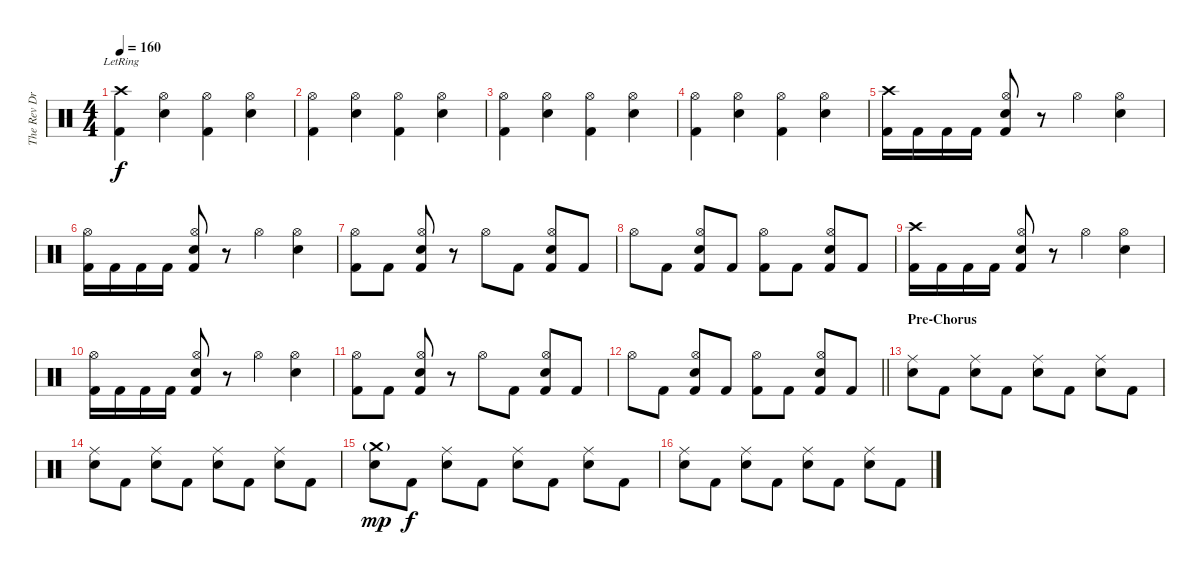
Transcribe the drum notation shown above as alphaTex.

\track ("The Rev Drum" "The Rev Dr") {instrument percussion}
\staff {score}
\articulation defaults
\ts (4 4)
\tempo 160
\clef neutral
\ks c
("Crash high (hit)" "Kick (hit) 2"{lr}).4{dy f} ("Hi-Hat (open)" "Electric Snare (hit)").4 ("Hi-Hat (open)" "Kick (hit) 2").4 ("Hi-Hat (open)" "Electric Snare (hit)").4 |
("Hi-Hat (open)" "Kick (hit) 2").4 ("Hi-Hat (open)" "Electric Snare (hit)").4 ("Hi-Hat (open)" "Kick (hit) 2").4 ("Hi-Hat (open)" "Electric Snare (hit)").4 |
("Hi-Hat (open)" "Kick (hit) 2").4 ("Hi-Hat (open)" "Electric Snare (hit)").4 ("Hi-Hat (open)" "Kick (hit) 2").4 ("Hi-Hat (open)" "Electric Snare (hit)").4 |
("Hi-Hat (open)" "Kick (hit) 2").4 ("Hi-Hat (open)" "Electric Snare (hit)").4 ("Hi-Hat (open)" "Kick (hit) 2").4 ("Hi-Hat (open)" "Electric Snare (hit)").4 |
("Crash high (hit)" "Kick (hit) 2").16 "Kick (hit) 2".16 "Kick (hit) 2".16 "Kick (hit) 2".16 ("Hi-Hat (open)" "Electric Snare (hit)" "Kick (hit) 2").8 r.8 "Hi-Hat (open)".4 ("Hi-Hat (open)" "Electric Snare (hit)").4 |
("Hi-Hat (open)" "Kick (hit) 2").16 "Kick (hit) 2".16 "Kick (hit) 2".16 "Kick (hit) 2".16 ("Hi-Hat (open)" "Electric Snare (hit)" "Kick (hit) 2").8 r.8 "Hi-Hat (open)".4 ("Hi-Hat (open)" "Electric Snare (hit)").4 |
("Hi-Hat (open)" "Kick (hit) 2").8 "Kick (hit) 2".8 ("Hi-Hat (open)" "Electric Snare (hit)" "Kick (hit) 2").8 r.8 "Hi-Hat (open)".8 "Kick (hit) 2".8 ("Hi-Hat (open)" "Electric Snare (hit)" "Kick (hit) 2").8 "Kick (hit) 2".8 |
"Hi-Hat (open)".8 "Kick (hit) 2".8 ("Hi-Hat (open)" "Electric Snare (hit)" "Kick (hit) 2").8 "Kick (hit) 2".8 ("Hi-Hat (open)" "Kick (hit) 2").8 "Kick (hit) 2".8 ("Hi-Hat (open)" "Electric Snare (hit)" "Kick (hit) 2").8 "Kick (hit) 2".8 |
("Crash high (hit)" "Kick (hit) 2").16 "Kick (hit) 2".16 "Kick (hit) 2".16 "Kick (hit) 2".16 ("Hi-Hat (open)" "Electric Snare (hit)" "Kick (hit) 2").8 r.8 "Hi-Hat (open)".4 ("Hi-Hat (open)" "Electric Snare (hit)").4 |
("Hi-Hat (open)" "Kick (hit) 2").16 "Kick (hit) 2".16 "Kick (hit) 2".16 "Kick (hit) 2".16 ("Hi-Hat (open)" "Electric Snare (hit)" "Kick (hit) 2").8 r.8 "Hi-Hat (open)".4 ("Hi-Hat (open)" "Electric Snare (hit)").4 |
("Hi-Hat (open)" "Kick (hit) 2").8 "Kick (hit) 2".8 ("Hi-Hat (open)" "Electric Snare (hit)" "Kick (hit) 2").8 r.8 "Hi-Hat (open)".8 "Kick (hit) 2".8 ("Hi-Hat (open)" "Electric Snare (hit)" "Kick (hit) 2").8 "Kick (hit) 2".8 |
\barLineRight lightlight "Hi-Hat (open)".8 "Kick (hit) 2".8
("Hi-Hat (open)" "Electric Snare (hit)" "Kick (hit) 2").8 "Kick (hit) 2".8 ("Hi-Hat (open)" "Kick (hit) 2").8 "Kick (hit) 2".8 ("Hi-Hat (open)" "Electric Snare (hit)" "Kick (hit) 2").8 "Kick (hit) 2".8 |
\section ("" "Pre-Chorus")
("Ride (middle)" "Electric Snare (hit)").8 "Kick (hit) 2".8 ("Ride (middle)" "Electric Snare (hit)").8 "Kick (hit) 2".8 ("Ride (middle)" "Electric Snare (hit)").8 "Kick (hit) 2".8 ("Ride (middle)" "Electric Snare (hit)").8 "Kick (hit) 2".8 |
("Ride (middle)" "Electric Snare (hit)").8 "Kick (hit) 2".8 ("Ride (middle)" "Electric Snare (hit)").8 "Kick (hit) 2".8 ("Ride (middle)" "Electric Snare (hit)").8 "Kick (hit) 2".8 ("Ride (middle)" "Electric Snare (hit)").8 "Kick (hit) 2".8 |
("Crash medium (hit)"{g} "Electric Snare (hit)").8{dy mp} "Kick (hit) 2".8{dy f} ("Ride (middle)" "Electric Snare (hit)").8 "Kick (hit) 2".8 ("Ride (middle)" "Electric Snare (hit)").8 "Kick (hit) 2".8 ("Ride (middle)" "Electric Snare (hit)").8 "Kick (hit) 2".8 |
("Ride (middle)" "Electric Snare (hit)").8 "Kick (hit) 2".8 ("Ride (middle)" "Electric Snare (hit)").8 "Kick (hit) 2".8 ("Ride (middle)" "Electric Snare (hit)").8 "Kick (hit) 2".8 ("Ride (middle)" "Electric Snare (hit)").8 "Kick (hit) 2".8
